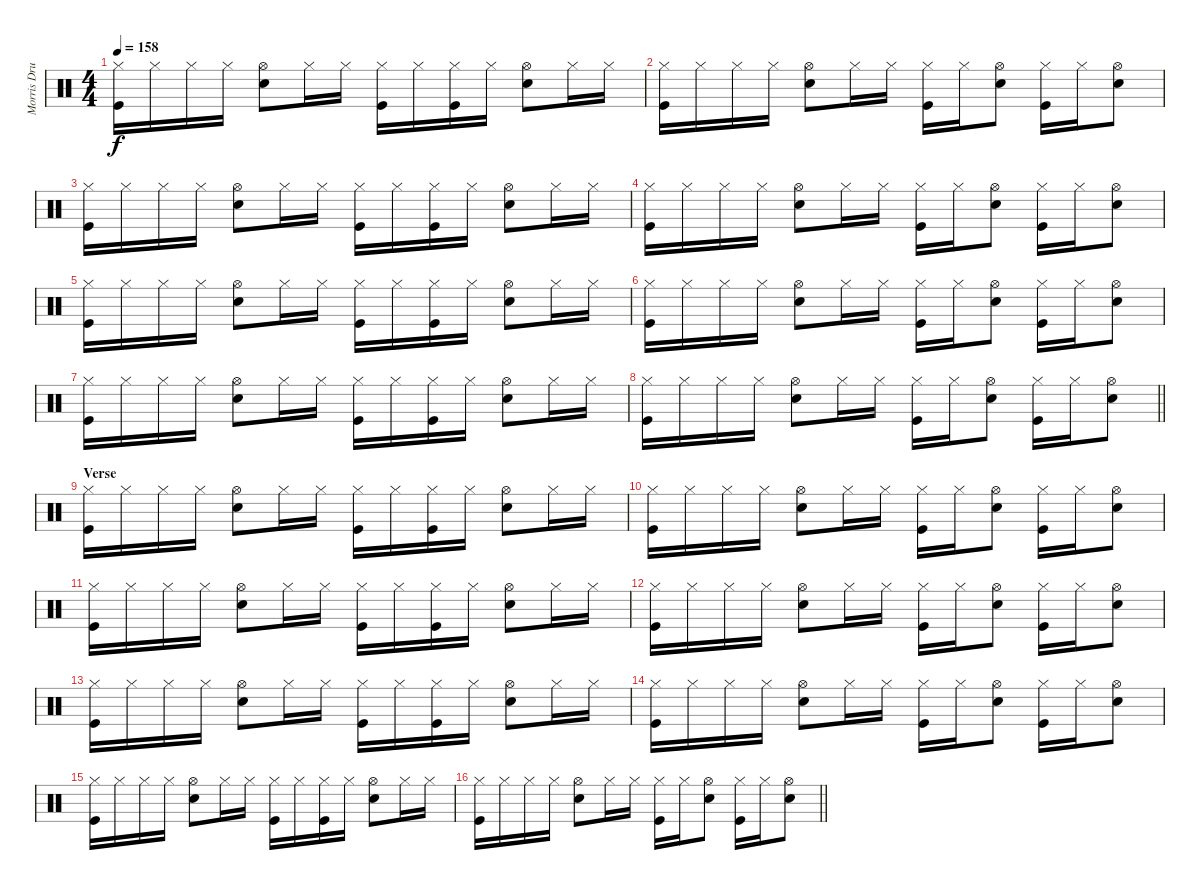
\track ("Morris Drums" "Morris Dru") {instrument percussion}
\staff {score}
\articulation defaults
\ts (4 4)
\tempo 158
\clef neutral
\ks c
("Hi-Hat (closed)" "Kick (hit)").16{dy f} "Hi-Hat (closed)".16 "Hi-Hat (closed)".16 "Hi-Hat (closed)".16 ("Hi-Hat (open)" "Snare (hit) 2").8 "Hi-Hat (closed)".16 "Hi-Hat (closed)".16 ("Hi-Hat (closed)" "Kick (hit)").16 "Hi-Hat (closed)".16 ("Hi-Hat (closed)" "Kick (hit)").16 "Hi-Hat (closed)".16 ("Hi-Hat (open)" "Snare (hit) 2").8 "Hi-Hat (closed)".16 "Hi-Hat (closed)".16 |
("Hi-Hat (closed)" "Kick (hit)").16 "Hi-Hat (closed)".16 "Hi-Hat (closed)".16 "Hi-Hat (closed)".16 ("Hi-Hat (open)" "Snare (hit) 2").8 "Hi-Hat (closed)".16 "Hi-Hat (closed)".16 ("Hi-Hat (closed)" "Kick (hit)").16 "Hi-Hat (closed)".16 ("Hi-Hat (open)" "Snare (hit) 2").8 ("Hi-Hat (closed)" "Kick (hit)").16 "Hi-Hat (closed)".16 ("Hi-Hat (open)" "Snare (hit) 2").8 |
("Hi-Hat (closed)" "Kick (hit)").16 "Hi-Hat (closed)".16 "Hi-Hat (closed)".16 "Hi-Hat (closed)".16 ("Hi-Hat (open)" "Snare (hit) 2").8 "Hi-Hat (closed)".16 "Hi-Hat (closed)".16 ("Hi-Hat (closed)" "Kick (hit)").16 "Hi-Hat (closed)".16 ("Hi-Hat (closed)" "Kick (hit)").16 "Hi-Hat (closed)".16 ("Hi-Hat (open)" "Snare (hit) 2").8 "Hi-Hat (closed)".16 "Hi-Hat (closed)".16 |
("Hi-Hat (closed)" "Kick (hit)").16 "Hi-Hat (closed)".16 "Hi-Hat (closed)".16 "Hi-Hat (closed)".16 ("Hi-Hat (open)" "Snare (hit) 2").8 "Hi-Hat (closed)".16 "Hi-Hat (closed)".16 ("Hi-Hat (closed)" "Kick (hit)").16 "Hi-Hat (closed)".16 ("Hi-Hat (open)" "Snare (hit) 2").8 ("Hi-Hat (closed)" "Kick (hit)").16 "Hi-Hat (closed)".16 ("Hi-Hat (open)" "Snare (hit) 2").8 |
("Hi-Hat (closed)" "Kick (hit)").16 "Hi-Hat (closed)".16 "Hi-Hat (closed)".16 "Hi-Hat (closed)".16 ("Hi-Hat (open)" "Snare (hit) 2").8 "Hi-Hat (closed)".16 "Hi-Hat (closed)".16 ("Hi-Hat (closed)" "Kick (hit)").16 "Hi-Hat (closed)".16 ("Hi-Hat (closed)" "Kick (hit)").16 "Hi-Hat (closed)".16 ("Hi-Hat (open)" "Snare (hit) 2").8 "Hi-Hat (closed)".16 "Hi-Hat (closed)".16 |
("Hi-Hat (closed)" "Kick (hit)").16 "Hi-Hat (closed)".16 "Hi-Hat (closed)".16 "Hi-Hat (closed)".16 ("Hi-Hat (open)" "Snare (hit) 2").8 "Hi-Hat (closed)".16 "Hi-Hat (closed)".16 ("Hi-Hat (closed)" "Kick (hit)").16 "Hi-Hat (closed)".16 ("Hi-Hat (open)" "Snare (hit) 2").8 ("Hi-Hat (closed)" "Kick (hit)").16 "Hi-Hat (closed)".16 ("Hi-Hat (open)" "Snare (hit) 2").8 |
("Hi-Hat (closed)" "Kick (hit)").16 "Hi-Hat (closed)".16 "Hi-Hat (closed)".16 "Hi-Hat (closed)".16 ("Hi-Hat (open)" "Snare (hit) 2").8 "Hi-Hat (closed)".16 "Hi-Hat (closed)".16 ("Hi-Hat (closed)" "Kick (hit)").16 "Hi-Hat (closed)".16 ("Hi-Hat (closed)" "Kick (hit)").16 "Hi-Hat (closed)".16 ("Hi-Hat (open)" "Snare (hit) 2").8 "Hi-Hat (closed)".16 "Hi-Hat (closed)".16 |
\barLineRight lightlight
("Hi-Hat (closed)" "Kick (hit)").16 "Hi-Hat (closed)".16 "Hi-Hat (closed)".16 "Hi-Hat (closed)".16 ("Hi-Hat (open)" "Snare (hit) 2").8 "Hi-Hat (closed)".16 "Hi-Hat (closed)".16 ("Hi-Hat (closed)" "Kick (hit)").16 "Hi-Hat (closed)".16 ("Hi-Hat (open)" "Snare (hit) 2").8 ("Hi-Hat (closed)" "Kick (hit)").16 "Hi-Hat (closed)".16 ("Hi-Hat (open)" "Snare (hit) 2").8 |
\section ("" "Verse")
("Hi-Hat (closed)" "Kick (hit)").16 "Hi-Hat (closed)".16 "Hi-Hat (closed)".16 "Hi-Hat (closed)".16 ("Hi-Hat (open)" "Snare (hit) 2").8 "Hi-Hat (closed)".16 "Hi-Hat (closed)".16 ("Hi-Hat (closed)" "Kick (hit)").16 "Hi-Hat (closed)".16 ("Hi-Hat (closed)" "Kick (hit)").16 "Hi-Hat (closed)".16 ("Hi-Hat (open)" "Snare (hit) 2").8 "Hi-Hat (closed)".16 "Hi-Hat (closed)".16 |
("Hi-Hat (closed)" "Kick (hit)").16 "Hi-Hat (closed)".16 "Hi-Hat (closed)".16 "Hi-Hat (closed)".16 ("Hi-Hat (open)" "Snare (hit) 2").8 "Hi-Hat (closed)".16 "Hi-Hat (closed)".16 ("Hi-Hat (closed)" "Kick (hit)").16 "Hi-Hat (closed)".16 ("Hi-Hat (open)" "Snare (hit) 2").8 ("Hi-Hat (closed)" "Kick (hit)").16 "Hi-Hat (closed)".16 ("Hi-Hat (open)" "Snare (hit) 2").8 |
("Hi-Hat (closed)" "Kick (hit)").16 "Hi-Hat (closed)".16 "Hi-Hat (closed)".16 "Hi-Hat (closed)".16 ("Hi-Hat (open)" "Snare (hit) 2").8 "Hi-Hat (closed)".16 "Hi-Hat (closed)".16 ("Hi-Hat (closed)" "Kick (hit)").16 "Hi-Hat (closed)".16 ("Hi-Hat (closed)" "Kick (hit)").16 "Hi-Hat (closed)".16 ("Hi-Hat (open)" "Snare (hit) 2").8 "Hi-Hat (closed)".16 "Hi-Hat (closed)".16 |
("Hi-Hat (closed)" "Kick (hit)").16 "Hi-Hat (closed)".16 "Hi-Hat (closed)".16 "Hi-Hat (closed)".16 ("Hi-Hat (open)" "Snare (hit) 2").8 "Hi-Hat (closed)".16 "Hi-Hat (closed)".16 ("Hi-Hat (closed)" "Kick (hit)").16 "Hi-Hat (closed)".16 ("Hi-Hat (open)" "Snare (hit) 2").8 ("Hi-Hat (closed)" "Kick (hit)").16 "Hi-Hat (closed)".16 ("Hi-Hat (open)" "Snare (hit) 2").8 |
("Hi-Hat (closed)" "Kick (hit)").16 "Hi-Hat (closed)".16 "Hi-Hat (closed)".16 "Hi-Hat (closed)".16 ("Hi-Hat (open)" "Snare (hit) 2").8 "Hi-Hat (closed)".16 "Hi-Hat (closed)".16 ("Hi-Hat (closed)" "Kick (hit)").16 "Hi-Hat (closed)".16 ("Hi-Hat (closed)" "Kick (hit)").16 "Hi-Hat (closed)".16 ("Hi-Hat (open)" "Snare (hit) 2").8 "Hi-Hat (closed)".16 "Hi-Hat (closed)".16 |
("Hi-Hat (closed)" "Kick (hit)").16 "Hi-Hat (closed)".16 "Hi-Hat (closed)".16 "Hi-Hat (closed)".16 ("Hi-Hat (open)" "Snare (hit) 2").8 "Hi-Hat (closed)".16 "Hi-Hat (closed)".16 ("Hi-Hat (closed)" "Kick (hit)").16 "Hi-Hat (closed)".16 ("Hi-Hat (open)" "Snare (hit) 2").8 ("Hi-Hat (closed)" "Kick (hit)").16 "Hi-Hat (closed)".16 ("Hi-Hat (open)" "Snare (hit) 2").8 |
("Hi-Hat (closed)" "Kick (hit)").16 "Hi-Hat (closed)".16 "Hi-Hat (closed)".16 "Hi-Hat (closed)".16 ("Hi-Hat (open)" "Snare (hit) 2").8 "Hi-Hat (closed)".16 "Hi-Hat (closed)".16 ("Hi-Hat (closed)" "Kick (hit)").16 "Hi-Hat (closed)".16 ("Hi-Hat (closed)" "Kick (hit)").16 "Hi-Hat (closed)".16 ("Hi-Hat (open)" "Snare (hit) 2").8 "Hi-Hat (closed)".16 "Hi-Hat (closed)".16 |
\barLineRight lightlight
("Hi-Hat (closed)" "Kick (hit)").16 "Hi-Hat (closed)".16 "Hi-Hat (closed)".16 "Hi-Hat (closed)".16 ("Hi-Hat (open)" "Snare (hit) 2").8 "Hi-Hat (closed)".16 "Hi-Hat (closed)".16 ("Hi-Hat (closed)" "Kick (hit)").16 "Hi-Hat (closed)".16 ("Hi-Hat (open)" "Snare (hit) 2").8 ("Hi-Hat (closed)" "Kick (hit)").16 "Hi-Hat (closed)".16 ("Hi-Hat (open)" "Snare (hit) 2").8
